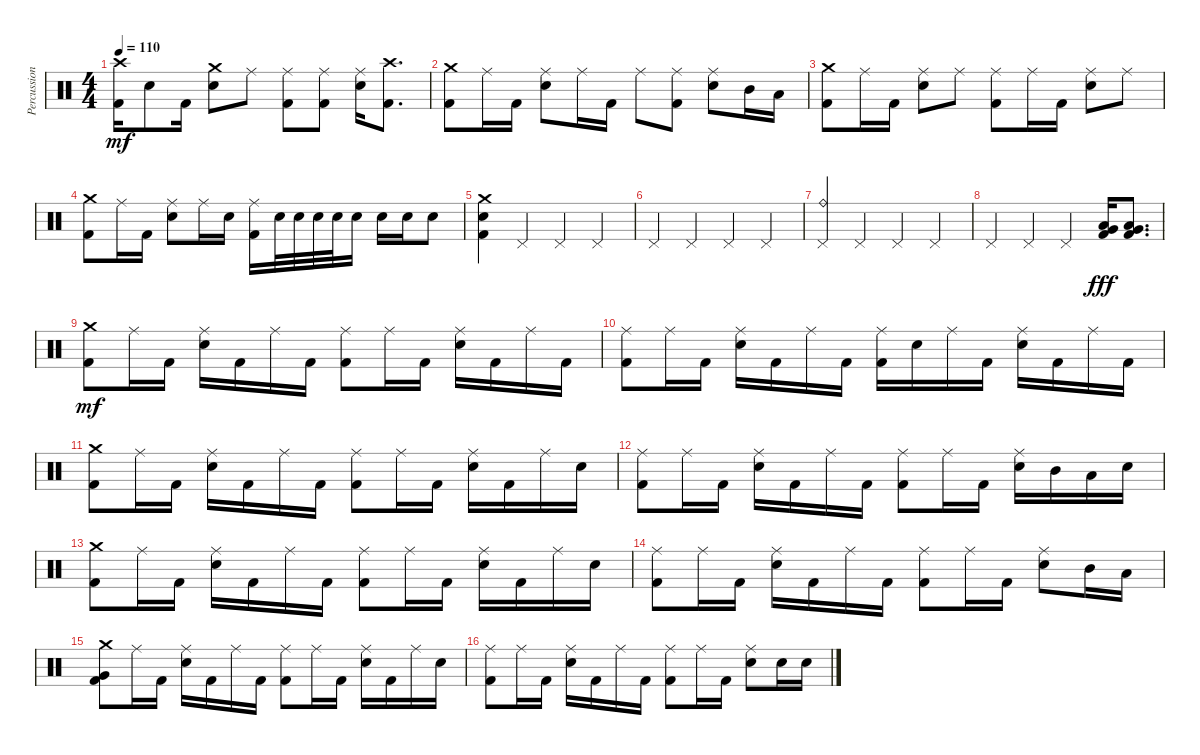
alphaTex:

\track ("Percussion" "Percussion") {instrument percussion}
\staff {score}
\articulation defaults
\ts (4 4)
\tempo 110
\clef neutral
\ks c
("Crash high (hit)" "Kick (hit) 2").16{dy mf} "Electric Snare (hit)".8 "Kick (hit) 2".16 ("Crash medium (hit)" "Electric Snare (hit)").8 "Ride (middle)".8 ("Ride (middle)" "Kick (hit) 2").8 ("Ride (middle)" "Kick (hit) 2").8 ("Ride (middle)" "Electric Snare (hit)").16 ("Crash high (hit)" "Kick (hit) 2").8{d} |
("Crash medium (hit)" "Kick (hit) 2").8 "Ride (middle)".16 "Kick (hit) 2".16 ("Ride (middle)" "Electric Snare (hit)").8 "Ride (middle)".16 "Kick (hit) 2".16 "Ride (middle)".8 ("Ride (middle)" "Kick (hit) 2").8 ("Ride (middle)" "Electric Snare (hit)").8 "Mid Tom (hit)".16 "Low Tom (hit)".16 |
("Crash medium (hit)" "Kick (hit) 2").8 "Ride (middle)".16 "Kick (hit) 2".16 ("Ride (middle)" "Electric Snare (hit)").8 "Ride (middle)".8 ("Ride (middle)" "Kick (hit) 2").8 "Ride (middle)".16 "Kick (hit) 2".16 ("Ride (middle)" "Electric Snare (hit)").8 "Ride (middle)".8 |
("Crash medium (hit)" "Kick (hit) 2").8 "Ride (middle)".16 "Kick (hit) 2".16 ("Ride (middle)" "Electric Snare (hit)").8 "Ride (middle)".16 "Electric Snare (hit)".16 ("Ride (middle)" "Kick (hit) 2").16 "Electric Snare (hit)".32 "Electric Snare (hit)".32 "Electric Snare (hit)".32 "Electric Snare (hit)".32 "Electric Snare (hit)".16 "Electric Snare (hit)".16 "Electric Snare (hit)".16 "Electric Snare (hit)".8 |
("Crash medium (hit)" "Electric Snare (hit)" "Kick (hit) 2").4 "Pedal Hi-Hat (hit)".4 "Pedal Hi-Hat (hit)".4 "Pedal Hi-Hat (hit)".4 |
"Pedal Hi-Hat (hit)".4 "Pedal Hi-Hat (hit)".4 "Pedal Hi-Hat (hit)".4 "Pedal Hi-Hat (hit)".4 |
("Ride (bell)" "Pedal Hi-Hat (hit)").4 "Pedal Hi-Hat (hit)".4 "Pedal Hi-Hat (hit)".4 "Pedal Hi-Hat (hit)".4 |
"Pedal Hi-Hat (hit)".4 "Pedal Hi-Hat (hit)".4 "Pedal Hi-Hat (hit)".4 ("Low Tom (hit)" "Very Low Tom (hit)" "Kick (hit) 2").16{dy fff} ("Very Low Tom (hit)" "Low Floor Tom (hit)" "Kick (hit) 2").8{d} |
("Crash medium (hit)" "Kick (hit) 2").8{dy mf} "Ride (middle)".16 "Kick (hit) 2".16 ("Ride (middle)" "Electric Snare (hit)").16 "Kick (hit) 2".16 "Ride (middle)".16 "Kick (hit) 2".16 ("Ride (middle)" "Kick (hit) 2").8 "Ride (middle)".16 "Kick (hit) 2".16 ("Ride (middle)" "Electric Snare (hit)").16 "Kick (hit) 2".16 "Ride (middle)".16 "Kick (hit) 2".16 |
("Ride (middle)" "Kick (hit) 2").8 "Ride (middle)".16 "Kick (hit) 2".16 ("Ride (middle)" "Electric Snare (hit)").16 "Kick (hit) 2".16 "Ride (middle)".16 "Kick (hit) 2".16 ("Ride (middle)" "Kick (hit) 2").16 "Electric Snare (hit)".16 "Ride (middle)".16 "Kick (hit) 2".16 ("Ride (middle)" "Electric Snare (hit)").16 "Kick (hit) 2".16 "Ride (middle)".16 "Kick (hit) 2".16 |
("Crash medium (hit)" "Kick (hit) 2").8 "Ride (middle)".16 "Kick (hit) 2".16 ("Ride (middle)" "Electric Snare (hit)").16 "Kick (hit) 2".16 "Ride (middle)".16 "Kick (hit) 2".16 ("Ride (middle)" "Kick (hit) 2").8 "Ride (middle)".16 "Kick (hit) 2".16 ("Ride (middle)" "Electric Snare (hit)").16 "Kick (hit) 2".16 "Ride (middle)".16 "Electric Snare (hit)".16 |
("Ride (middle)" "Kick (hit) 2").8 "Ride (middle)".16 "Kick (hit) 2".16 ("Ride (middle)" "Electric Snare (hit)").16 "Kick (hit) 2".16 "Ride (middle)".16 "Kick (hit) 2".16 ("Ride (middle)" "Kick (hit) 2").8 "Ride (middle)".16 "Kick (hit) 2".16 ("Ride (middle)" "Electric Snare (hit)").16 "Mid Tom (hit)".16 "Low Tom (hit)".16 "Electric Snare (hit)".16 |
("Crash medium (hit)" "Kick (hit) 2").8 "Ride (middle)".16 "Kick (hit) 2".16 ("Ride (middle)" "Electric Snare (hit)").16 "Kick (hit) 2".16 "Ride (middle)".16 "Kick (hit) 2".16 ("Ride (middle)" "Kick (hit) 2").8 "Ride (middle)".16 "Kick (hit) 2".16 ("Ride (middle)" "Electric Snare (hit)").16 "Kick (hit) 2".16 "Ride (middle)".16 "Electric Snare (hit)".16 |
("Ride (middle)" "Kick (hit) 2").8 "Ride (middle)".16 "Kick (hit) 2".16 ("Ride (middle)" "Electric Snare (hit)").16 "Kick (hit) 2".16 "Ride (middle)".16 "Kick (hit) 2".16 ("Ride (middle)" "Kick (hit) 2").8 "Ride (middle)".16 "Kick (hit) 2".16 ("Ride (middle)" "Electric Snare (hit)").8 "Mid Tom (hit)".16 "Low Tom (hit)".16 |
("Crash medium (hit)" "Very Low Tom (hit)" "Kick (hit) 2").8 "Ride (middle)".16 "Kick (hit) 2".16 ("Ride (middle)" "Electric Snare (hit)").16 "Kick (hit) 2".16 "Ride (middle)".16 "Kick (hit) 2".16 ("Ride (middle)" "Kick (hit) 2").8 "Ride (middle)".16 "Kick (hit) 2".16 ("Ride (middle)" "Electric Snare (hit)").16 "Kick (hit) 2".16 "Ride (middle)".16 "Electric Snare (hit)".16 |
("Ride (middle)" "Kick (hit) 2").8 "Ride (middle)".16 "Kick (hit) 2".16 ("Ride (middle)" "Electric Snare (hit)").16 "Kick (hit) 2".16 "Ride (middle)".16 "Kick (hit) 2".16 ("Ride (middle)" "Kick (hit) 2").8 "Ride (middle)".16 "Kick (hit) 2".16 ("Ride (middle)" "Electric Snare (hit)").8 "Electric Snare (hit)".16 "Electric Snare (hit)".16
